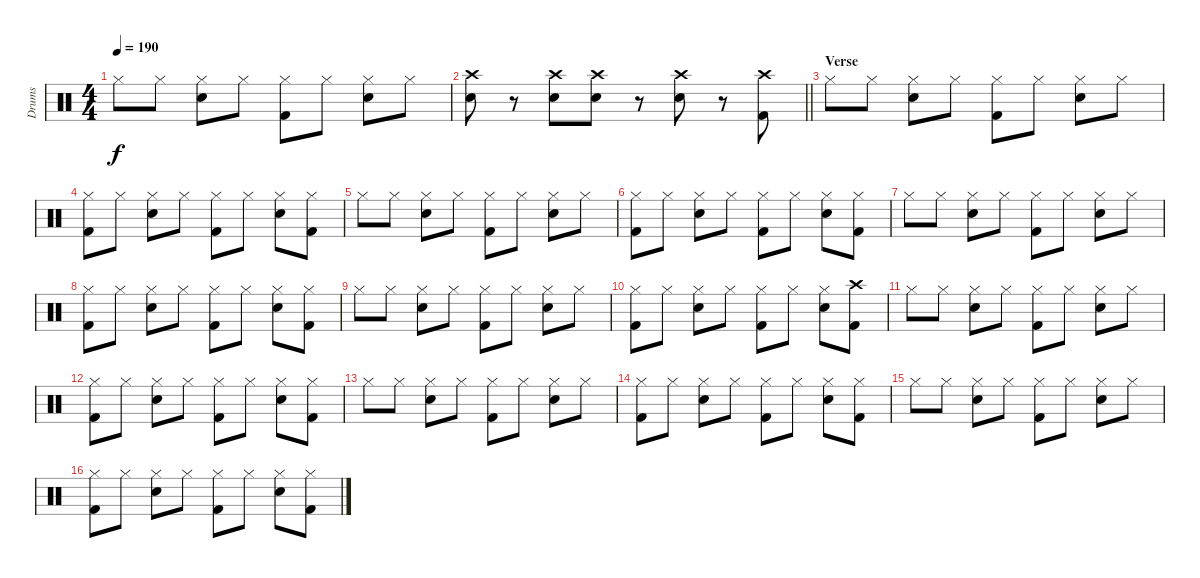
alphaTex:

\track ("Drums" "Drums") {instrument percussion}
\staff {score}
\articulation defaults
\ts (4 4)
\tempo 190
\clef neutral
\ks c "Hi-Hat (closed)".8{dy f} "Hi-Hat (closed)".8
("Hi-Hat (closed)" "Snare (hit) 2").8 "Hi-Hat (closed)".8 ("Hi-Hat (closed)" "Kick (hit) 2").8 "Hi-Hat (closed)".8 ("Hi-Hat (closed)" "Snare (hit) 2").8 "Hi-Hat (closed)".8 |
\barLineRight lightlight
("Crash high (hit)" "Snare (hit) 2").8 r.8 ("Crash high (hit)" "Snare (hit) 2").8 ("Crash high (hit)" "Snare (hit) 2").8 r.8 ("Crash high (hit)" "Snare (hit) 2").8 r.8 ("Crash high (hit)" "Kick (hit) 2").8 |
\section ("" "Verse")
"Hi-Hat (closed)".8 "Hi-Hat (closed)".8 ("Hi-Hat (closed)" "Snare (hit) 2").8 "Hi-Hat (closed)".8 ("Hi-Hat (closed)" "Kick (hit) 2").8 "Hi-Hat (closed)".8 ("Hi-Hat (closed)" "Snare (hit) 2").8 "Hi-Hat (closed)".8 |
("Hi-Hat (closed)" "Kick (hit) 2").8 "Hi-Hat (closed)".8 ("Hi-Hat (closed)" "Snare (hit) 2").8 "Hi-Hat (closed)".8 ("Hi-Hat (closed)" "Kick (hit) 2").8 "Hi-Hat (closed)".8 ("Hi-Hat (closed)" "Snare (hit) 2").8 ("Hi-Hat (closed)" "Kick (hit) 2").8 |
"Hi-Hat (closed)".8 "Hi-Hat (closed)".8 ("Hi-Hat (closed)" "Snare (hit) 2").8 "Hi-Hat (closed)".8 ("Hi-Hat (closed)" "Kick (hit) 2").8 "Hi-Hat (closed)".8 ("Hi-Hat (closed)" "Snare (hit) 2").8 "Hi-Hat (closed)".8 |
("Hi-Hat (closed)" "Kick (hit) 2").8 "Hi-Hat (closed)".8 ("Hi-Hat (closed)" "Snare (hit) 2").8 "Hi-Hat (closed)".8 ("Hi-Hat (closed)" "Kick (hit) 2").8 "Hi-Hat (closed)".8 ("Hi-Hat (closed)" "Snare (hit) 2").8 ("Hi-Hat (closed)" "Kick (hit) 2").8 |
"Hi-Hat (closed)".8 "Hi-Hat (closed)".8 ("Hi-Hat (closed)" "Snare (hit) 2").8 "Hi-Hat (closed)".8 ("Hi-Hat (closed)" "Kick (hit) 2").8 "Hi-Hat (closed)".8 ("Hi-Hat (closed)" "Snare (hit) 2").8 "Hi-Hat (closed)".8 |
("Hi-Hat (closed)" "Kick (hit) 2").8 "Hi-Hat (closed)".8 ("Hi-Hat (closed)" "Snare (hit) 2").8 "Hi-Hat (closed)".8 ("Hi-Hat (closed)" "Kick (hit) 2").8 "Hi-Hat (closed)".8 ("Hi-Hat (closed)" "Snare (hit) 2").8 ("Hi-Hat (closed)" "Kick (hit) 2").8 |
"Hi-Hat (closed)".8 "Hi-Hat (closed)".8 ("Hi-Hat (closed)" "Snare (hit) 2").8 "Hi-Hat (closed)".8 ("Hi-Hat (closed)" "Kick (hit) 2").8 "Hi-Hat (closed)".8 ("Hi-Hat (closed)" "Snare (hit) 2").8 "Hi-Hat (closed)".8 |
("Hi-Hat (closed)" "Kick (hit) 2").8 "Hi-Hat (closed)".8 ("Hi-Hat (closed)" "Snare (hit) 2").8 "Hi-Hat (closed)".8 ("Hi-Hat (closed)" "Kick (hit) 2").8 "Hi-Hat (closed)".8 ("Hi-Hat (closed)" "Snare (hit) 2").8 ("Crash high (hit)" "Kick (hit) 2").8 |
"Hi-Hat (closed)".8 "Hi-Hat (closed)".8 ("Hi-Hat (closed)" "Snare (hit) 2").8 "Hi-Hat (closed)".8 ("Hi-Hat (closed)" "Kick (hit) 2").8 "Hi-Hat (closed)".8 ("Hi-Hat (closed)" "Snare (hit) 2").8 "Hi-Hat (closed)".8 |
("Hi-Hat (closed)" "Kick (hit) 2").8 "Hi-Hat (closed)".8 ("Hi-Hat (closed)" "Snare (hit) 2").8 "Hi-Hat (closed)".8 ("Hi-Hat (closed)" "Kick (hit) 2").8 "Hi-Hat (closed)".8 ("Hi-Hat (closed)" "Snare (hit) 2").8 ("Hi-Hat (closed)" "Kick (hit) 2").8 |
"Hi-Hat (closed)".8 "Hi-Hat (closed)".8 ("Hi-Hat (closed)" "Snare (hit) 2").8 "Hi-Hat (closed)".8 ("Hi-Hat (closed)" "Kick (hit) 2").8 "Hi-Hat (closed)".8 ("Hi-Hat (closed)" "Snare (hit) 2").8 "Hi-Hat (closed)".8 |
("Hi-Hat (closed)" "Kick (hit) 2").8 "Hi-Hat (closed)".8 ("Hi-Hat (closed)" "Snare (hit) 2").8 "Hi-Hat (closed)".8 ("Hi-Hat (closed)" "Kick (hit) 2").8 "Hi-Hat (closed)".8 ("Hi-Hat (closed)" "Snare (hit) 2").8 ("Hi-Hat (closed)" "Kick (hit) 2").8 |
"Hi-Hat (closed)".8 "Hi-Hat (closed)".8 ("Hi-Hat (closed)" "Snare (hit) 2").8 "Hi-Hat (closed)".8 ("Hi-Hat (closed)" "Kick (hit) 2").8 "Hi-Hat (closed)".8 ("Hi-Hat (closed)" "Snare (hit) 2").8 "Hi-Hat (closed)".8 |
("Hi-Hat (closed)" "Kick (hit) 2").8 "Hi-Hat (closed)".8 ("Hi-Hat (closed)" "Snare (hit) 2").8 "Hi-Hat (closed)".8 ("Hi-Hat (closed)" "Kick (hit) 2").8 "Hi-Hat (closed)".8 ("Hi-Hat (closed)" "Snare (hit) 2").8 ("Hi-Hat (closed)" "Kick (hit) 2").8
